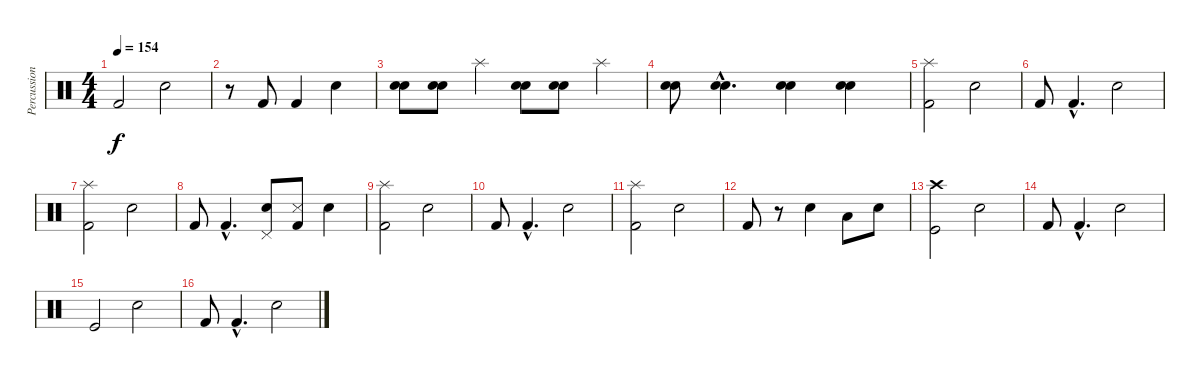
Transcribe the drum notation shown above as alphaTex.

\track ("Percussion" "Percussion") {instrument percussion}
\staff {score}
\articulation defaults
\ts (4 4)
\tempo 154
\clef neutral
\ks c "Kick (hit) 2".2{dy f} "Snare (hit) 2".2
|
r.8 "Kick (hit) 2".8 "Kick (hit) 2".4 "Snare (hit) 2".4 |
("Snare (hit) 2" "Electric Snare (hit)").8 ("Snare (hit) 2" "Electric Snare (hit)").8 "Splash (hit)".4 ("Snare (hit) 2" "Electric Snare (hit)").8 ("Snare (hit) 2" "Electric Snare (hit)").8 "Splash (hit)".4 |
("Snare (hit) 2" "Electric Snare (hit)").8 ("Snare (hit) 2"{hac} "Electric Snare (hit)"{hac}).4{d} ("Snare (hit) 2" "Electric Snare (hit)").4 ("Snare (hit) 2" "Electric Snare (hit)").4 |
("Kick (hit) 2" "Splash (hit)").2 "Snare (hit) 2".2 |
"Kick (hit) 2".8 "Kick (hit) 2"{hac}.4{d} "Snare (hit) 2".2 |
("Kick (hit) 2" "Splash (hit)").2 "Snare (hit) 2".2 |
"Kick (hit) 2".8 "Kick (hit) 2"{hac}.4{d} ("Snare (hit) 2" "Pedal Hi-Hat (hit)").8 ("Kick (hit) 2" "Snare (side stick) 3").8 "Snare (hit) 2".4 |
("Kick (hit) 2" "Splash (hit)").2 "Snare (hit) 2".2 |
"Kick (hit) 2".8 "Kick (hit) 2"{hac}.4{d} "Snare (hit) 2".2 |
("Kick (hit) 2" "Splash (hit)").2 "Snare (hit) 2".2 |
"Kick (hit) 2".8 r.8 "Snare (hit) 2".4 "Low Tom (hit)".8 "Snare (hit) 2".8 |
("Kick (hit)" "Crash high (hit)").2 "Snare (hit) 2".2 |
"Kick (hit) 2".8 "Kick (hit) 2"{hac}.4{d} "Snare (hit) 2".2 |
"Kick (hit)".2 "Snare (hit) 2".2 |
"Kick (hit) 2".8 "Kick (hit) 2"{hac}.4{d} "Snare (hit) 2".2
